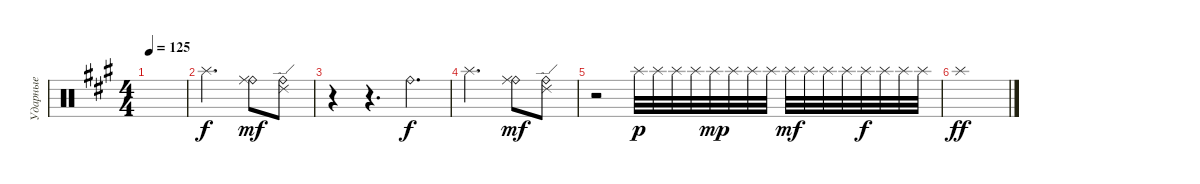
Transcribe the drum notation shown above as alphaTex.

\track ("Ударные" "Ударные") {instrument percussion}
\staff {score}
\articulation defaults
\ts (4 4)
\tempo 125
\clef neutral
\ks f#minor
|
"Splash (hit)".2{d} ("Ride (bell)" "Ride (middle)").8{dy mf} ("Ride (bell)" "Ride (edge) 2").8 |
r.4 r.4{d} "Ride (bell)".4{d dy f} |
"Splash (hit)".2{d} ("Ride (bell)" "Ride (middle)").8{dy mf} ("Ride (bell)" "Ride (edge) 2").8 |
r.2 "Splash (hit)".32{dy p} "Splash (hit)".32 "Splash (hit)".32 "Splash (hit)".32 "Splash (hit)".32{dy mp} "Splash (hit)".32 "Splash (hit)".32 "Splash (hit)".32 "Splash (hit)".32{dy mf} "Splash (hit)".32 "Splash (hit)".32 "Splash (hit)".32 "Splash (hit)".32{dy f} "Splash (hit)".32 "Splash (hit)".32 "Splash (hit)".32 |
"Splash (hit)".1{dy ff}
